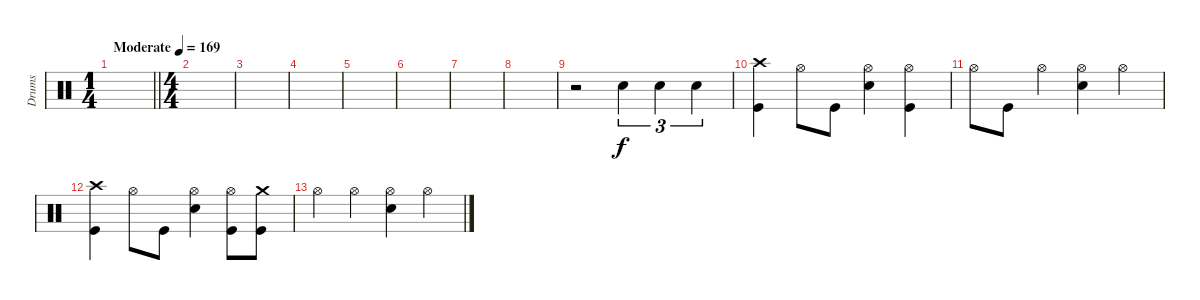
\track ("Drums" "Drums") {instrument percussion}
\staff
\articulation defaults
\ts (1 4)
\tempo (169 "Moderate")
\clef neutral
\barLineRight lightlight
\ks c
|
\ts (4 4)
|
|
|
|
|
|
|
r.2 "Electric Snare (hit)".4{tu (3 2)} "Electric Snare (hit)".4{tu (3 2)} "Electric Snare (hit)".4{tu (3 2)} |
("Crash high (hit)" "Kick (hit)").4 "Hi-Hat (open)".8 "Kick (hit)".8 ("Hi-Hat (open)" "Electric Snare (hit)").4 ("Hi-Hat (open)" "Kick (hit)").4 |
"Hi-Hat (open)".8 "Kick (hit)".8 "Hi-Hat (open)".4 ("Hi-Hat (open)" "Electric Snare (hit)").4 "Hi-Hat (open)".4 |
("Crash high (hit)" "Kick (hit)").4 "Hi-Hat (open)".8 "Kick (hit)".8 ("Hi-Hat (open)" "Electric Snare (hit)").4 ("Hi-Hat (open)" "Kick (hit)").8 ("Crash medium (hit)" "Kick (hit)").8 |
"Hi-Hat (open)".4 "Hi-Hat (open)".4 ("Hi-Hat (open)" "Electric Snare (hit)").4 "Hi-Hat (open)".4
